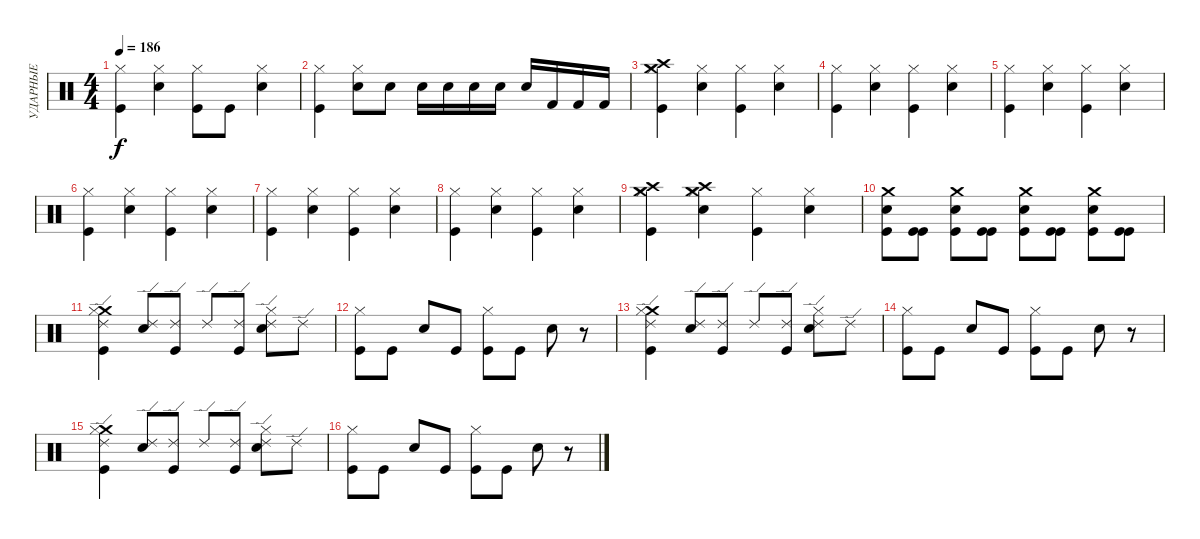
\track ("УДАРНЫЕ" "УДАРНЫЕ") {instrument percussion}
\staff {score}
\articulation defaults
\ts (4 4)
\tempo 186
\clef neutral
\ks c
("Hi-Hat (closed)" "Kick (hit)").4{dy f} ("Hi-Hat (closed)" "Electric Snare (hit)").4 ("Hi-Hat (closed)" "Kick (hit)").8 "Kick (hit)".8 ("Hi-Hat (closed)" "Electric Snare (hit)").4 |
("Hi-Hat (closed)" "Kick (hit)").4 ("Hi-Hat (closed)" "Electric Snare (hit)").8 "Electric Snare (hit)".8 "Electric Snare (hit)".16 "Electric Snare (hit)".16 "Electric Snare (hit)".16 "Electric Snare (hit)".16 "Electric Snare (hit)".16 "Kick (hit) 2".16 "Kick (hit) 2".16 "Kick (hit) 2".16 |
("Hi-Hat (closed)" "Kick (hit)" "Crash high (hit)" "Crash medium (hit)").4 ("Hi-Hat (closed)" "Electric Snare (hit)").4 ("Hi-Hat (closed)" "Kick (hit)").4 ("Hi-Hat (closed)" "Electric Snare (hit)").4 |
("Hi-Hat (closed)" "Kick (hit)").4 ("Hi-Hat (closed)" "Electric Snare (hit)").4 ("Hi-Hat (closed)" "Kick (hit)").4 ("Hi-Hat (closed)" "Electric Snare (hit)").4 |
("Hi-Hat (closed)" "Kick (hit)").4 ("Hi-Hat (closed)" "Electric Snare (hit)").4 ("Hi-Hat (closed)" "Kick (hit)").4 ("Hi-Hat (closed)" "Electric Snare (hit)").4 |
("Hi-Hat (closed)" "Kick (hit)").4 ("Hi-Hat (closed)" "Electric Snare (hit)").4 ("Hi-Hat (closed)" "Kick (hit)").4 ("Hi-Hat (closed)" "Electric Snare (hit)").4 |
("Hi-Hat (closed)" "Kick (hit)").4 ("Hi-Hat (closed)" "Electric Snare (hit)").4 ("Hi-Hat (closed)" "Kick (hit)").4 ("Hi-Hat (closed)" "Electric Snare (hit)").4 |
("Hi-Hat (closed)" "Kick (hit)").4 ("Hi-Hat (closed)" "Electric Snare (hit)").4 ("Hi-Hat (closed)" "Kick (hit)").4 ("Hi-Hat (closed)" "Electric Snare (hit)").4 |
("Hi-Hat (closed)" "Kick (hit)" "Crash medium (hit)" "Crash high (hit)").4 ("Hi-Hat (closed)" "Electric Snare (hit)" "Crash medium (hit)" "Crash high (hit)").4 ("Hi-Hat (closed)" "Kick (hit)").4 ("Hi-Hat (closed)" "Electric Snare (hit)").4 |
("Electric Snare (hit)" "Crash medium (hit)" "Kick (hit)").8 ("Kick (hit)" "Kick (hit)").8 ("Electric Snare (hit)" "Crash medium (hit)" "Kick (hit)").8 ("Kick (hit)" "Kick (hit)").8 ("Electric Snare (hit)" "Crash medium (hit)" "Kick (hit)").8 ("Kick (hit)" "Kick (hit)").8 ("Electric Snare (hit)" "Crash medium (hit)" "Kick (hit)").8 ("Kick (hit)" "Kick (hit)").8 |
("Ride (edge) 2" "Crash medium (hit)" "Hi-Hat (closed)" "Kick (hit)").4 ("Ride (edge) 2" "Electric Snare (hit)").8 ("Ride (edge) 2" "Kick (hit)").8 "Ride (edge) 2".8 ("Ride (edge) 2" "Kick (hit)").8 ("Ride (edge) 2" "Hi-Hat (closed)" "Electric Snare (hit)").8 "Ride (edge) 2".8 |
("Hi-Hat (closed)" "Kick (hit)").8 "Kick (hit)".8 "Electric Snare (hit)".8 "Kick (hit)".8 ("Hi-Hat (closed)" "Kick (hit)").8 "Kick (hit)".8 "Electric Snare (hit)".8 r.8 |
("Ride (edge) 2" "Crash medium (hit)" "Hi-Hat (closed)" "Kick (hit)").4 ("Ride (edge) 2" "Electric Snare (hit)").8 ("Ride (edge) 2" "Kick (hit)").8 "Ride (edge) 2".8 ("Ride (edge) 2" "Kick (hit)").8 ("Ride (edge) 2" "Hi-Hat (closed)" "Electric Snare (hit)").8 "Ride (edge) 2".8 |
("Hi-Hat (closed)" "Kick (hit)").8 "Kick (hit)".8 "Electric Snare (hit)".8 "Kick (hit)".8 ("Hi-Hat (closed)" "Kick (hit)").8 "Kick (hit)".8 "Electric Snare (hit)".8 r.8 |
("Ride (edge) 2" "Crash medium (hit)" "Hi-Hat (closed)" "Kick (hit)").4 ("Ride (edge) 2" "Electric Snare (hit)").8 ("Ride (edge) 2" "Kick (hit)").8 "Ride (edge) 2".8 ("Ride (edge) 2" "Kick (hit)").8 ("Ride (edge) 2" "Hi-Hat (closed)" "Electric Snare (hit)").8 "Ride (edge) 2".8 |
("Hi-Hat (closed)" "Kick (hit)").8 "Kick (hit)".8 "Electric Snare (hit)".8 "Kick (hit)".8 ("Hi-Hat (closed)" "Kick (hit)").8 "Kick (hit)".8 "Electric Snare (hit)".8 r.8
